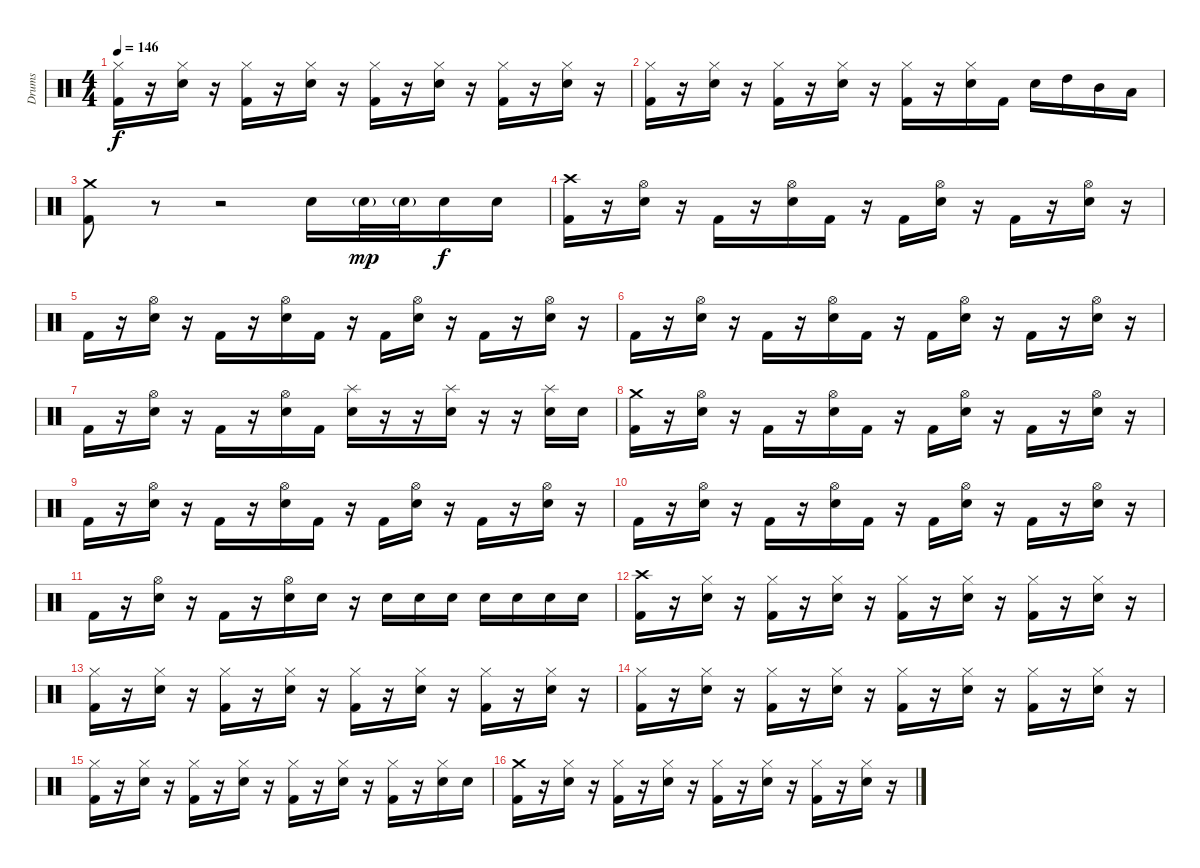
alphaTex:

\track ("Drums" "Drums") {instrument percussion}
\staff {score}
\articulation defaults
\ts (4 4)
\tempo 146
\clef neutral
\ks c
("Hi-Hat (closed)" "Kick (hit) 2").16{dy f} r.16 ("Hi-Hat (closed)" "Snare (hit) 2").16 r.16 ("Hi-Hat (closed)" "Kick (hit) 2").16 r.16 ("Hi-Hat (closed)" "Snare (hit) 2").16 r.16 ("Hi-Hat (closed)" "Kick (hit) 2").16 r.16 ("Hi-Hat (closed)" "Snare (hit) 2").16 r.16 ("Hi-Hat (closed)" "Kick (hit) 2").16 r.16 ("Hi-Hat (closed)" "Snare (hit) 2").16 r.16 |
("Hi-Hat (closed)" "Kick (hit) 2").16 r.16 ("Hi-Hat (closed)" "Snare (hit) 2").16 r.16 ("Hi-Hat (closed)" "Kick (hit) 2").16 r.16 ("Hi-Hat (closed)" "Snare (hit) 2").16 r.16 ("Hi-Hat (closed)" "Kick (hit) 2").16 r.16 ("Hi-Hat (closed)" "Snare (hit) 2").16 "Kick (hit) 2".16 "Snare (hit) 2".16 "High Tom (hit)".16 "Mid Tom (hit)".16 "Low Tom (hit)".16 |
("Crash medium (hit)" "Kick (hit) 2").8 r.8 r.2 "Snare (hit) 2".16 "Snare (hit) 2"{g}.32{dy mp} "Snare (hit) 2"{g}.32 "Snare (hit) 2".16{dy f} "Snare (hit) 2".16 |
("Crash high (hit)" "Kick (hit) 2").16 r.16 ("Hi-Hat (open)" "Snare (hit) 2").16 r.16 "Kick (hit) 2".16 r.16 ("Hi-Hat (open)" "Snare (hit) 2").16 "Kick (hit) 2".16 r.16 "Kick (hit) 2".16 ("Hi-Hat (open)" "Snare (hit) 2").16 r.16 "Kick (hit) 2".16 r.16 ("Hi-Hat (open)" "Snare (hit) 2").16 r.16 |
"Kick (hit) 2".16 r.16 ("Hi-Hat (open)" "Snare (hit) 2").16 r.16 "Kick (hit) 2".16 r.16 ("Hi-Hat (open)" "Snare (hit) 2").16 "Kick (hit) 2".16 r.16 "Kick (hit) 2".16 ("Hi-Hat (open)" "Snare (hit) 2").16 r.16 "Kick (hit) 2".16 r.16 ("Hi-Hat (open)" "Snare (hit) 2").16 r.16 |
"Kick (hit) 2".16 r.16 ("Hi-Hat (open)" "Snare (hit) 2").16 r.16 "Kick (hit) 2".16 r.16 ("Hi-Hat (open)" "Snare (hit) 2").16 "Kick (hit) 2".16 r.16 "Kick (hit) 2".16 ("Hi-Hat (open)" "Snare (hit) 2").16 r.16 "Kick (hit) 2".16 r.16 ("Hi-Hat (open)" "Snare (hit) 2").16 r.16 |
"Kick (hit) 2".16 r.16 ("Hi-Hat (open)" "Snare (hit) 2").16 r.16 "Kick (hit) 2".16 r.16 ("Hi-Hat (open)" "Snare (hit) 2").16 "Kick (hit) 2".16 ("Splash (hit)" "Snare (hit) 2").16 r.16 r.16 ("Splash (hit)" "Snare (hit) 2").16 r.16 r.16 ("Splash (hit)" "Snare (hit) 2").16 "Snare (hit) 2".16 |
("Crash medium (hit)" "Kick (hit) 2").16 r.16 ("Hi-Hat (open)" "Snare (hit) 2").16 r.16 "Kick (hit) 2".16 r.16 ("Hi-Hat (open)" "Snare (hit) 2").16 "Kick (hit) 2".16 r.16 "Kick (hit) 2".16 ("Hi-Hat (open)" "Snare (hit) 2").16 r.16 "Kick (hit) 2".16 r.16 ("Hi-Hat (open)" "Snare (hit) 2").16 r.16 |
"Kick (hit) 2".16 r.16 ("Hi-Hat (open)" "Snare (hit) 2").16 r.16 "Kick (hit) 2".16 r.16 ("Hi-Hat (open)" "Snare (hit) 2").16 "Kick (hit) 2".16 r.16 "Kick (hit) 2".16 ("Hi-Hat (open)" "Snare (hit) 2").16 r.16 "Kick (hit) 2".16 r.16 ("Hi-Hat (open)" "Snare (hit) 2").16 r.16 |
"Kick (hit) 2".16 r.16 ("Hi-Hat (open)" "Snare (hit) 2").16 r.16 "Kick (hit) 2".16 r.16 ("Hi-Hat (open)" "Snare (hit) 2").16 "Kick (hit) 2".16 r.16 "Kick (hit) 2".16 ("Hi-Hat (open)" "Snare (hit) 2").16 r.16 "Kick (hit) 2".16 r.16 ("Hi-Hat (open)" "Snare (hit) 2").16 r.16 |
"Kick (hit) 2".16 r.16 ("Hi-Hat (open)" "Snare (hit) 2").16 r.16 "Kick (hit) 2".16 r.16 ("Hi-Hat (open)" "Snare (hit) 2").16 "Snare (hit) 2".16 r.16 "Snare (hit) 2".16 "Snare (hit) 2".16 "Snare (hit) 2".16 "Snare (hit) 2".16 "Snare (hit) 2".16 "Snare (hit) 2".16 "Snare (hit) 2".16 |
("Crash high (hit)" "Kick (hit) 2").16 r.16 ("Hi-Hat (closed)" "Snare (hit) 2").16 r.16 ("Hi-Hat (closed)" "Kick (hit) 2").16 r.16 ("Hi-Hat (closed)" "Snare (hit) 2").16 r.16 ("Hi-Hat (closed)" "Kick (hit) 2").16 r.16 ("Hi-Hat (closed)" "Snare (hit) 2").16 r.16 ("Hi-Hat (closed)" "Kick (hit) 2").16 r.16 ("Hi-Hat (closed)" "Snare (hit) 2").16 r.16 |
("Hi-Hat (closed)" "Kick (hit) 2").16 r.16 ("Hi-Hat (closed)" "Snare (hit) 2").16 r.16 ("Hi-Hat (closed)" "Kick (hit) 2").16 r.16 ("Hi-Hat (closed)" "Snare (hit) 2").16 r.16 ("Hi-Hat (closed)" "Kick (hit) 2").16 r.16 ("Hi-Hat (closed)" "Snare (hit) 2").16 r.16 ("Hi-Hat (closed)" "Kick (hit) 2").16 r.16 ("Hi-Hat (closed)" "Snare (hit) 2").16 r.16 |
("Hi-Hat (closed)" "Kick (hit) 2").16 r.16 ("Hi-Hat (closed)" "Snare (hit) 2").16 r.16 ("Hi-Hat (closed)" "Kick (hit) 2").16 r.16 ("Hi-Hat (closed)" "Snare (hit) 2").16 r.16 ("Hi-Hat (closed)" "Kick (hit) 2").16 r.16 ("Hi-Hat (closed)" "Snare (hit) 2").16 r.16 ("Hi-Hat (closed)" "Kick (hit) 2").16 r.16 ("Hi-Hat (closed)" "Snare (hit) 2").16 r.16 |
("Hi-Hat (closed)" "Kick (hit) 2").16 r.16 ("Hi-Hat (closed)" "Snare (hit) 2").16 r.16 ("Hi-Hat (closed)" "Kick (hit) 2").16 r.16 ("Hi-Hat (closed)" "Snare (hit) 2").16 r.16 ("Hi-Hat (closed)" "Kick (hit) 2").16 r.16 ("Hi-Hat (closed)" "Snare (hit) 2").16 r.16 ("Hi-Hat (closed)" "Kick (hit) 2").16 r.16 ("Hi-Hat (closed)" "Snare (hit) 2").16 "Snare (hit) 2".16 |
("Crash medium (hit)" "Kick (hit) 2").16 r.16 ("Hi-Hat (closed)" "Snare (hit) 2").16 r.16 ("Hi-Hat (closed)" "Kick (hit) 2").16 r.16 ("Hi-Hat (closed)" "Snare (hit) 2").16 r.16 ("Hi-Hat (closed)" "Kick (hit) 2").16 r.16 ("Hi-Hat (closed)" "Snare (hit) 2").16 r.16 ("Hi-Hat (closed)" "Kick (hit) 2").16 r.16 ("Hi-Hat (closed)" "Snare (hit) 2").16 r.16
